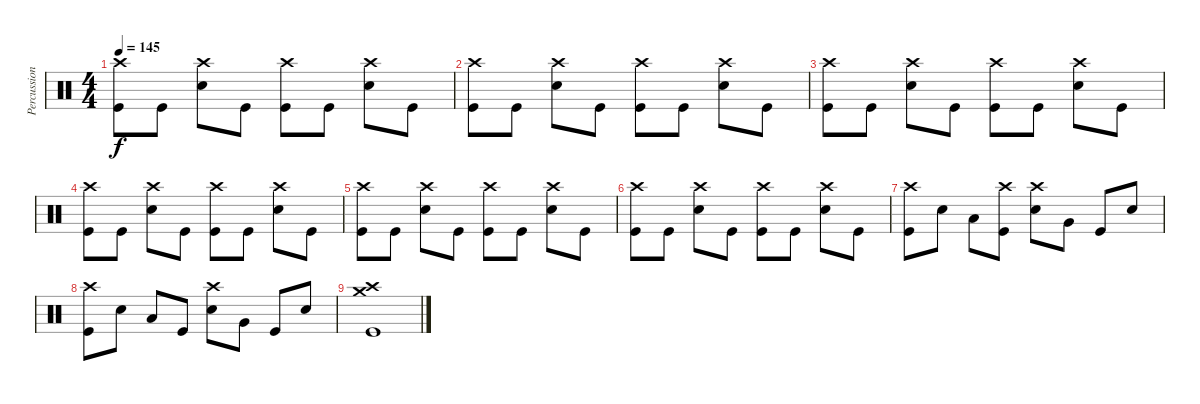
\track ("Percussion" "Percussion") {instrument percussion}
\staff {score}
\articulation defaults
\ts (4 4)
\tempo 145
\clef neutral
\ks c
("Kick (hit)" "Crash high (hit)").8{dy f} "Kick (hit)".8 ("Snare (hit) 2" "Crash high (hit)").8 "Kick (hit)".8 ("Kick (hit)" "Crash high (hit)").8 "Kick (hit)".8 ("Snare (hit) 2" "Crash high (hit)").8 "Kick (hit)".8 |
("Kick (hit)" "Crash high (hit)").8 "Kick (hit)".8 ("Snare (hit) 2" "Crash high (hit)").8 "Kick (hit)".8 ("Kick (hit)" "Crash high (hit)").8 "Kick (hit)".8 ("Snare (hit) 2" "Crash high (hit)").8 "Kick (hit)".8 |
("Kick (hit)" "Crash high (hit)").8 "Kick (hit)".8 ("Snare (hit) 2" "Crash high (hit)").8 "Kick (hit)".8 ("Kick (hit)" "Crash high (hit)").8 "Kick (hit)".8 ("Snare (hit) 2" "Crash high (hit)").8 "Kick (hit)".8 |
("Kick (hit)" "Crash high (hit)").8 "Kick (hit)".8 ("Snare (hit) 2" "Crash high (hit)").8 "Kick (hit)".8 ("Kick (hit)" "Crash high (hit)").8 "Kick (hit)".8 ("Snare (hit) 2" "Crash high (hit)").8 "Kick (hit)".8 |
("Kick (hit)" "Crash high (hit)").8 "Kick (hit)".8 ("Snare (hit) 2" "Crash high (hit)").8 "Kick (hit)".8 ("Kick (hit)" "Crash high (hit)").8 "Kick (hit)".8 ("Snare (hit) 2" "Crash high (hit)").8 "Kick (hit)".8 |
("Kick (hit)" "Crash high (hit)").8 "Kick (hit)".8 ("Snare (hit) 2" "Crash high (hit)").8 "Kick (hit)".8 ("Kick (hit)" "Crash high (hit)").8 "Kick (hit)".8 ("Snare (hit) 2" "Crash high (hit)").8 "Kick (hit)".8 |
("Crash high (hit)" "Kick (hit)").8 "Snare (hit) 2".8 "Low Tom (hit)".8 ("Kick (hit)" "Crash high (hit)").8 ("Snare (hit) 2" "Crash high (hit)").8 "Very Low Tom (hit)".8 "Kick (hit)".8 "Snare (hit) 2".8 |
("Crash high (hit)" "Kick (hit)").8 "Snare (hit) 2".8 "Low Tom (hit)".8 "Kick (hit)".8 ("Snare (hit) 2" "Crash high (hit)").8 "Very Low Tom (hit)".8 "Kick (hit)".8 "Snare (hit) 2".8 |
("Kick (hit)" "Crash high (hit)" "Crash medium (hit)").1
